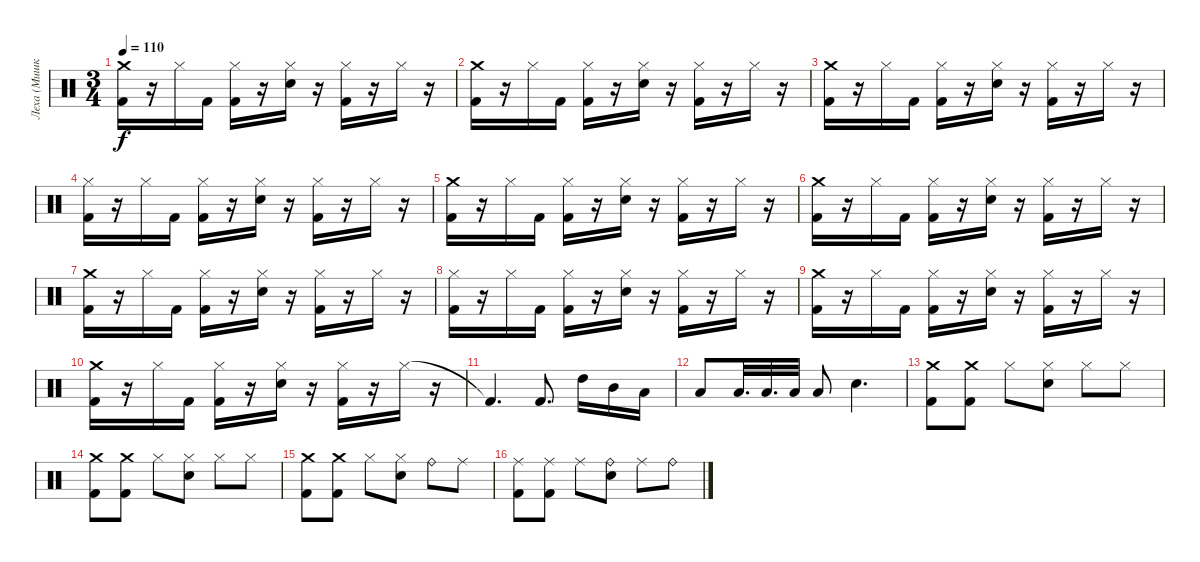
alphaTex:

\track ("Леха (Мишка Гами)" "Леха (Мишк") {instrument percussion}
\staff {score}
\articulation defaults
\ts (3 4)
\tempo 110
\clef neutral
\ks c
("Crash medium (hit)" "Kick (hit) 2").16{dy f} r.16 "Hi-Hat (closed)".16 "Kick (hit) 2".16 ("Hi-Hat (closed)" "Kick (hit) 2").16 r.16 ("Hi-Hat (closed)" "Snare (hit) 2").16 r.16 ("Hi-Hat (closed)" "Kick (hit) 2").16 r.16 "Hi-Hat (closed)".16 r.16 |
("Crash medium (hit)" "Kick (hit) 2").16 r.16 "Hi-Hat (closed)".16 "Kick (hit) 2".16 ("Hi-Hat (closed)" "Kick (hit) 2").16 r.16 ("Hi-Hat (closed)" "Snare (hit) 2").16 r.16 ("Hi-Hat (closed)" "Kick (hit) 2").16 r.16 "Hi-Hat (closed)".16 r.16 |
("Crash medium (hit)" "Kick (hit) 2").16 r.16 "Hi-Hat (closed)".16 "Kick (hit) 2".16 ("Hi-Hat (closed)" "Kick (hit) 2").16 r.16 ("Hi-Hat (closed)" "Snare (hit) 2").16 r.16 ("Hi-Hat (closed)" "Kick (hit) 2").16 r.16 "Hi-Hat (closed)".16 r.16 |
("Hi-Hat (closed)" "Kick (hit) 2").16 r.16 "Hi-Hat (closed)".16 "Kick (hit) 2".16 ("Hi-Hat (closed)" "Kick (hit) 2").16 r.16 ("Hi-Hat (closed)" "Snare (hit) 2").16 r.16 ("Hi-Hat (closed)" "Kick (hit) 2").16 r.16 "Hi-Hat (closed)".16 r.16 |
("Crash medium (hit)" "Kick (hit) 2").16 r.16 "Hi-Hat (closed)".16 "Kick (hit) 2".16 ("Hi-Hat (closed)" "Kick (hit) 2").16 r.16 ("Hi-Hat (closed)" "Snare (hit) 2").16 r.16 ("Hi-Hat (closed)" "Kick (hit) 2").16 r.16 "Hi-Hat (closed)".16 r.16 |
("Crash medium (hit)" "Kick (hit) 2").16 r.16 "Hi-Hat (closed)".16 "Kick (hit) 2".16 ("Hi-Hat (closed)" "Kick (hit) 2").16 r.16 ("Hi-Hat (closed)" "Snare (hit) 2").16 r.16 ("Hi-Hat (closed)" "Kick (hit) 2").16 r.16 "Hi-Hat (closed)".16 r.16 |
("Crash medium (hit)" "Kick (hit) 2").16 r.16 "Hi-Hat (closed)".16 "Kick (hit) 2".16 ("Hi-Hat (closed)" "Kick (hit) 2").16 r.16 ("Hi-Hat (closed)" "Snare (hit) 2").16 r.16 ("Hi-Hat (closed)" "Kick (hit) 2").16 r.16 "Hi-Hat (closed)".16 r.16 |
("Hi-Hat (closed)" "Kick (hit) 2").16 r.16 "Hi-Hat (closed)".16 "Kick (hit) 2".16 ("Hi-Hat (closed)" "Kick (hit) 2").16 r.16 ("Hi-Hat (closed)" "Snare (hit) 2").16 r.16 ("Hi-Hat (closed)" "Kick (hit) 2").16 r.16 "Hi-Hat (closed)".16 r.16 |
("Crash medium (hit)" "Kick (hit) 2").16 r.16 "Hi-Hat (closed)".16 "Kick (hit) 2".16 ("Hi-Hat (closed)" "Kick (hit) 2").16 r.16 ("Hi-Hat (closed)" "Snare (hit) 2").16 r.16 ("Hi-Hat (closed)" "Kick (hit) 2").16 r.16 "Hi-Hat (closed)".16 r.16 |
("Crash medium (hit)" "Kick (hit) 2").16 r.16 "Hi-Hat (closed)".16 "Kick (hit) 2".16 ("Hi-Hat (closed)" "Kick (hit) 2").16 r.16 ("Hi-Hat (closed)" "Snare (hit) 2").16 r.16 ("Hi-Hat (closed)" "Kick (hit) 2").16 r.16 "Hi-Hat (closed)".16 r.16 |
"Kick (hit) 2"{t}.4{d} "Kick (hit) 2".8{d} "High Tom (hit)".16 "Mid Tom (hit)".16 "Low Tom (hit)".16 |
"Low Tom (hit)".8 "Low Tom (hit)".32{d} "Low Tom (hit)".32{d} "Low Tom (hit)".32 "Low Tom (hit)".8 "Snare (hit) 2".4{d} |
("Crash medium (hit)" "Kick (hit) 2").8 ("Crash medium (hit)" "Kick (hit) 2").8 "Hi-Hat (closed)".8 ("Hi-Hat (closed)" "Snare (hit) 2").8 "Hi-Hat (closed)".8 "Hi-Hat (closed)".8 |
("Crash medium (hit)" "Kick (hit) 2").8 ("Crash medium (hit)" "Kick (hit) 2").8 "Hi-Hat (closed)".8 ("Hi-Hat (closed)" "Snare (hit) 2").8 "Hi-Hat (closed)".8 "Hi-Hat (closed)".8 |
("Crash medium (hit)" "Kick (hit) 2").8 ("Crash medium (hit)" "Kick (hit) 2").8 "Hi-Hat (closed)".8 ("Hi-Hat (closed)" "Snare (hit) 2").8 "Ride (bell)".8 "Ride (middle)".8 |
("Ride (middle)" "Kick (hit) 2").8 ("Ride (middle)" "Kick (hit) 2").8 "Ride (middle)".8 ("Ride (bell)" "Snare (hit) 2").8 "Ride (middle)".8 "Ride (bell)".8
